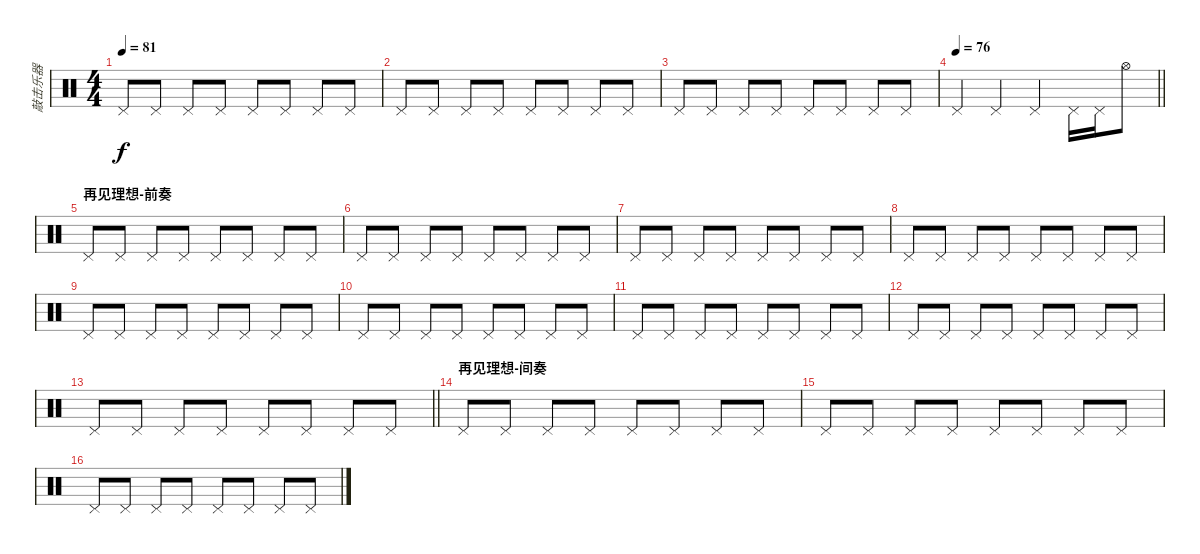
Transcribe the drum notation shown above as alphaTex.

\track ("敲击乐器" "敲击乐器") {instrument percussion}
\staff {score}
\articulation defaults
\ts (4 4)
\tempo 81
\clef neutral
\ks c "Pedal Hi-Hat (hit)".8{dy f} "Pedal Hi-Hat (hit)".8 "Pedal Hi-Hat (hit)".8 "Pedal Hi-Hat (hit)".8 "Pedal Hi-Hat (hit)".8 "Pedal Hi-Hat (hit)".8 "Pedal Hi-Hat (hit)".8 "Pedal Hi-Hat (hit)".8
|
"Pedal Hi-Hat (hit)".8 "Pedal Hi-Hat (hit)".8 "Pedal Hi-Hat (hit)".8 "Pedal Hi-Hat (hit)".8 "Pedal Hi-Hat (hit)".8 "Pedal Hi-Hat (hit)".8 "Pedal Hi-Hat (hit)".8 "Pedal Hi-Hat (hit)".8 |
"Pedal Hi-Hat (hit)".8 "Pedal Hi-Hat (hit)".8 "Pedal Hi-Hat (hit)".8 "Pedal Hi-Hat (hit)".8 "Pedal Hi-Hat (hit)".8 "Pedal Hi-Hat (hit)".8 "Pedal Hi-Hat (hit)".8 "Pedal Hi-Hat (hit)".8 |
\tempo 76
\barLineRight lightlight "Pedal Hi-Hat (hit)".4 "Pedal Hi-Hat (hit)".4 "Pedal Hi-Hat (hit)".4 "Pedal Hi-Hat (hit)".16 "Pedal Hi-Hat (hit)".16 "Hi-Hat (open)".8
|
\section ("" "再见理想-前奏")
"Pedal Hi-Hat (hit)".8 "Pedal Hi-Hat (hit)".8 "Pedal Hi-Hat (hit)".8 "Pedal Hi-Hat (hit)".8 "Pedal Hi-Hat (hit)".8 "Pedal Hi-Hat (hit)".8 "Pedal Hi-Hat (hit)".8 "Pedal Hi-Hat (hit)".8 |
"Pedal Hi-Hat (hit)".8 "Pedal Hi-Hat (hit)".8 "Pedal Hi-Hat (hit)".8 "Pedal Hi-Hat (hit)".8 "Pedal Hi-Hat (hit)".8 "Pedal Hi-Hat (hit)".8 "Pedal Hi-Hat (hit)".8 "Pedal Hi-Hat (hit)".8 |
"Pedal Hi-Hat (hit)".8 "Pedal Hi-Hat (hit)".8 "Pedal Hi-Hat (hit)".8 "Pedal Hi-Hat (hit)".8 "Pedal Hi-Hat (hit)".8 "Pedal Hi-Hat (hit)".8 "Pedal Hi-Hat (hit)".8 "Pedal Hi-Hat (hit)".8 |
"Pedal Hi-Hat (hit)".8 "Pedal Hi-Hat (hit)".8 "Pedal Hi-Hat (hit)".8 "Pedal Hi-Hat (hit)".8 "Pedal Hi-Hat (hit)".8 "Pedal Hi-Hat (hit)".8 "Pedal Hi-Hat (hit)".8 "Pedal Hi-Hat (hit)".8 |
"Pedal Hi-Hat (hit)".8 "Pedal Hi-Hat (hit)".8 "Pedal Hi-Hat (hit)".8 "Pedal Hi-Hat (hit)".8 "Pedal Hi-Hat (hit)".8 "Pedal Hi-Hat (hit)".8 "Pedal Hi-Hat (hit)".8 "Pedal Hi-Hat (hit)".8 |
"Pedal Hi-Hat (hit)".8 "Pedal Hi-Hat (hit)".8 "Pedal Hi-Hat (hit)".8 "Pedal Hi-Hat (hit)".8 "Pedal Hi-Hat (hit)".8 "Pedal Hi-Hat (hit)".8 "Pedal Hi-Hat (hit)".8 "Pedal Hi-Hat (hit)".8 |
"Pedal Hi-Hat (hit)".8 "Pedal Hi-Hat (hit)".8 "Pedal Hi-Hat (hit)".8 "Pedal Hi-Hat (hit)".8 "Pedal Hi-Hat (hit)".8 "Pedal Hi-Hat (hit)".8 "Pedal Hi-Hat (hit)".8 "Pedal Hi-Hat (hit)".8 |
"Pedal Hi-Hat (hit)".8 "Pedal Hi-Hat (hit)".8 "Pedal Hi-Hat (hit)".8 "Pedal Hi-Hat (hit)".8 "Pedal Hi-Hat (hit)".8 "Pedal Hi-Hat (hit)".8 "Pedal Hi-Hat (hit)".8 "Pedal Hi-Hat (hit)".8 |
\barLineRight lightlight "Pedal Hi-Hat (hit)".8 "Pedal Hi-Hat (hit)".8 "Pedal Hi-Hat (hit)".8 "Pedal Hi-Hat (hit)".8 "Pedal Hi-Hat (hit)".8 "Pedal Hi-Hat (hit)".8 "Pedal Hi-Hat (hit)".8 "Pedal Hi-Hat (hit)".8
|
\section ("" "再见理想-间奏")
"Pedal Hi-Hat (hit)".8 "Pedal Hi-Hat (hit)".8 "Pedal Hi-Hat (hit)".8 "Pedal Hi-Hat (hit)".8 "Pedal Hi-Hat (hit)".8 "Pedal Hi-Hat (hit)".8 "Pedal Hi-Hat (hit)".8 "Pedal Hi-Hat (hit)".8 |
"Pedal Hi-Hat (hit)".8 "Pedal Hi-Hat (hit)".8 "Pedal Hi-Hat (hit)".8 "Pedal Hi-Hat (hit)".8 "Pedal Hi-Hat (hit)".8 "Pedal Hi-Hat (hit)".8 "Pedal Hi-Hat (hit)".8 "Pedal Hi-Hat (hit)".8 |
"Pedal Hi-Hat (hit)".8 "Pedal Hi-Hat (hit)".8 "Pedal Hi-Hat (hit)".8 "Pedal Hi-Hat (hit)".8 "Pedal Hi-Hat (hit)".8 "Pedal Hi-Hat (hit)".8 "Pedal Hi-Hat (hit)".8 "Pedal Hi-Hat (hit)".8
